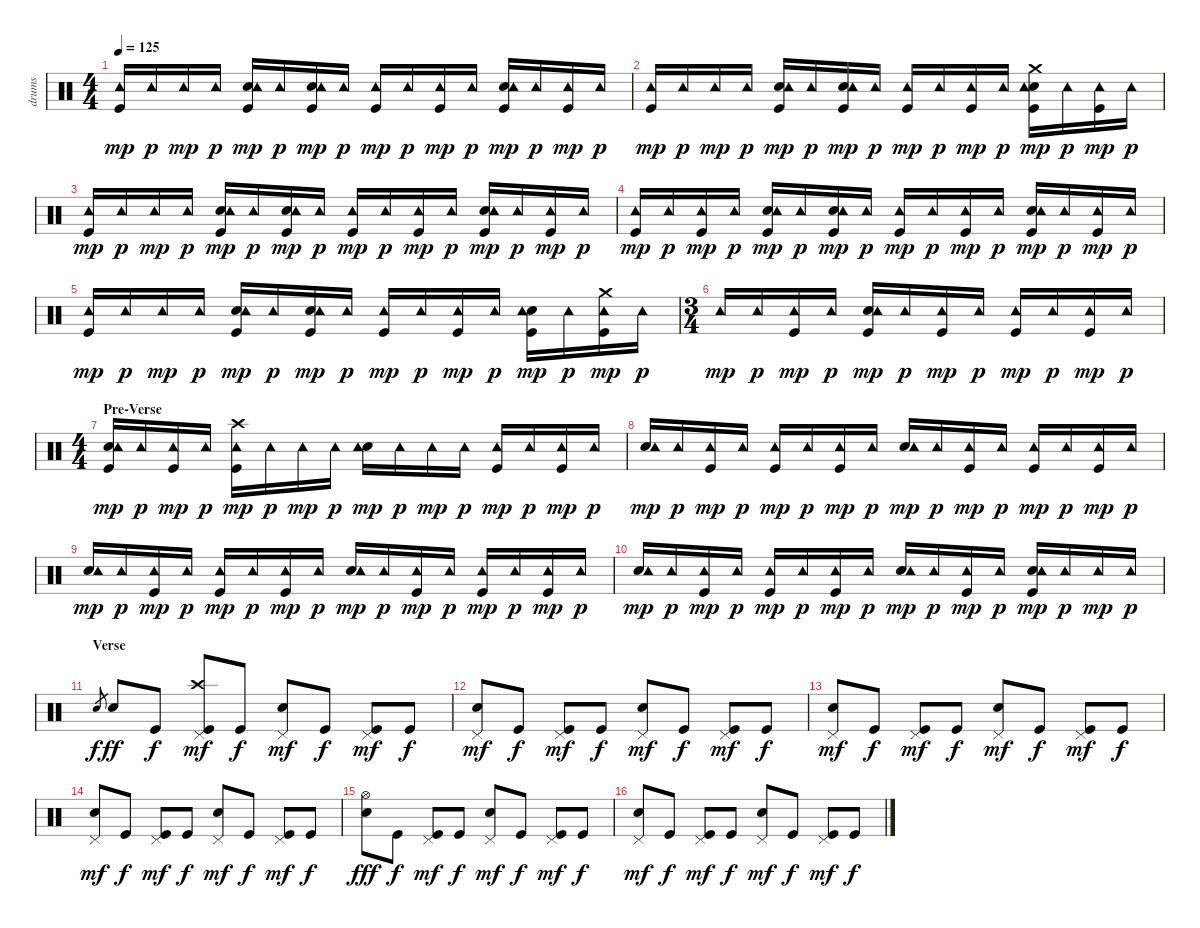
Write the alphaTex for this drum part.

\track ("drums" "drums") {instrument percussion}
\staff {score}
\articulation defaults
\ts (4 4)
\tempo 125
\clef neutral
\ks c
("Kick (hit)" "Tambourine (hit)").16{dy mp} "Tambourine (hit)".16{dy p} "Tambourine (hit)".16{dy mp} "Tambourine (hit)".16{dy p} ("Hand Clap (hit)" "Kick (hit)" "Tambourine (hit)").16{dy mp} "Tambourine (hit)".16{dy p} ("Hand Clap (hit)" "Kick (hit)" "Tambourine (hit)").16{dy mp} "Tambourine (hit)".16{dy p} ("Kick (hit)" "Tambourine (hit)").16{dy mp} "Tambourine (hit)".16{dy p} ("Kick (hit)" "Tambourine (hit)").16{dy mp} "Tambourine (hit)".16{dy p} ("Hand Clap (hit)" "Kick (hit)" "Tambourine (hit)").16{dy mp} "Tambourine (hit)".16{dy p} ("Kick (hit)" "Tambourine (hit)").16{dy mp} "Tambourine (hit)".16{dy p} |
("Kick (hit)" "Tambourine (hit)").16{dy mp} "Tambourine (hit)".16{dy p} "Tambourine (hit)".16{dy mp} "Tambourine (hit)".16{dy p} ("Hand Clap (hit)" "Kick (hit)" "Tambourine (hit)").16{dy mp} "Tambourine (hit)".16{dy p} ("Hand Clap (hit)" "Kick (hit)" "Tambourine (hit)").16{dy mp} "Tambourine (hit)".16{dy p} ("Kick (hit)" "Tambourine (hit)").16{dy mp} "Tambourine (hit)".16{dy p} ("Kick (hit)" "Tambourine (hit)").16{dy mp} "Tambourine (hit)".16{dy p} ("Hand Clap (hit)" "Kick (hit)" "Crash medium (hit)" "Tambourine (hit)").16{dy mp} "Tambourine (hit)".16{dy p} ("Kick (hit)" "Tambourine (hit)").16{dy mp} "Tambourine (hit)".16{dy p} |
("Kick (hit)" "Tambourine (hit)").16{dy mp} "Tambourine (hit)".16{dy p} "Tambourine (hit)".16{dy mp} "Tambourine (hit)".16{dy p} ("Hand Clap (hit)" "Kick (hit)" "Tambourine (hit)").16{dy mp} "Tambourine (hit)".16{dy p} ("Hand Clap (hit)" "Kick (hit)" "Tambourine (hit)").16{dy mp} "Tambourine (hit)".16{dy p} ("Kick (hit)" "Tambourine (hit)").16{dy mp} "Tambourine (hit)".16{dy p} ("Kick (hit)" "Tambourine (hit)").16{dy mp} "Tambourine (hit)".16{dy p} ("Hand Clap (hit)" "Kick (hit)" "Tambourine (hit)").16{dy mp} "Tambourine (hit)".16{dy p} ("Kick (hit)" "Tambourine (hit)").16{dy mp} "Tambourine (hit)".16{dy p} |
("Kick (hit)" "Tambourine (hit)").16{dy mp} "Tambourine (hit)".16{dy p} ("Kick (hit)" "Tambourine (hit)").16{dy mp} "Tambourine (hit)".16{dy p} ("Hand Clap (hit)" "Kick (hit)" "Tambourine (hit)").16{dy mp} "Tambourine (hit)".16{dy p} ("Hand Clap (hit)" "Kick (hit)" "Tambourine (hit)").16{dy mp} "Tambourine (hit)".16{dy p} ("Kick (hit)" "Tambourine (hit)").16{dy mp} "Tambourine (hit)".16{dy p} ("Kick (hit)" "Tambourine (hit)").16{dy mp} "Tambourine (hit)".16{dy p} ("Hand Clap (hit)" "Kick (hit)" "Tambourine (hit)").16{dy mp} "Tambourine (hit)".16{dy p} ("Kick (hit)" "Tambourine (hit)").16{dy mp} "Tambourine (hit)".16{dy p} |
("Kick (hit)" "Tambourine (hit)").16{dy mp} "Tambourine (hit)".16{dy p} "Tambourine (hit)".16{dy mp} "Tambourine (hit)".16{dy p} ("Hand Clap (hit)" "Kick (hit)" "Tambourine (hit)").16{dy mp} "Tambourine (hit)".16{dy p} ("Hand Clap (hit)" "Kick (hit)" "Tambourine (hit)").16{dy mp} "Tambourine (hit)".16{dy p} ("Kick (hit)" "Tambourine (hit)").16{dy mp} "Tambourine (hit)".16{dy p} ("Kick (hit)" "Tambourine (hit)").16{dy mp} "Tambourine (hit)".16{dy p} ("Hand Clap (hit)" "Kick (hit)" "Tambourine (hit)").16{dy mp} "Tambourine (hit)".16{dy p} ("Kick (hit)" "Crash medium (hit)" "Tambourine (hit)").16{dy mp} "Tambourine (hit)".16{dy p} |
\ts (3 4)
"Tambourine (hit)".16{dy mp} "Tambourine (hit)".16{dy p} ("Kick (hit)" "Tambourine (hit)").16{dy mp} "Tambourine (hit)".16{dy p} ("Hand Clap (hit)" "Kick (hit)" "Tambourine (hit)").16{dy mp} "Tambourine (hit)".16{dy p} ("Kick (hit)" "Tambourine (hit)").16{dy mp} "Tambourine (hit)".16{dy p} ("Kick (hit)" "Tambourine (hit)").16{dy mp} "Tambourine (hit)".16{dy p} ("Kick (hit)" "Tambourine (hit)").16{dy mp} "Tambourine (hit)".16{dy p} |
\ts (4 4)
\section ("" "Pre-Verse")
("Hand Clap (hit)" "Kick (hit)" "Tambourine (hit)").16{dy mp} "Tambourine (hit)".16{dy p} ("Kick (hit)" "Tambourine (hit)").16{dy mp} "Tambourine (hit)".16{dy p} ("Kick (hit)" "Crash high (hit)" "Tambourine (hit)").16{dy mp} "Tambourine (hit)".16{dy p} "Tambourine (hit)".16{dy mp} "Tambourine (hit)".16{dy p} ("Electric Snare (hit)" "Tambourine (hit)").16{dy mp} "Tambourine (hit)".16{dy p} "Tambourine (hit)".16{dy mp} "Tambourine (hit)".16{dy p} ("Kick (hit)" "Tambourine (hit)").16{dy mp} "Tambourine (hit)".16{dy p} ("Kick (hit)" "Tambourine (hit)").16{dy mp} "Tambourine (hit)".16{dy p} |
("Electric Snare (hit)" "Tambourine (hit)").16{dy mp} "Tambourine (hit)".16{dy p} ("Kick (hit)" "Tambourine (hit)").16{dy mp} "Tambourine (hit)".16{dy p} ("Kick (hit)" "Tambourine (hit)").16{dy mp} "Tambourine (hit)".16{dy p} ("Kick (hit)" "Tambourine (hit)").16{dy mp} "Tambourine (hit)".16{dy p} ("Electric Snare (hit)" "Tambourine (hit)").16{dy mp} "Tambourine (hit)".16{dy p} ("Kick (hit)" "Tambourine (hit)").16{dy mp} "Tambourine (hit)".16{dy p} ("Kick (hit)" "Tambourine (hit)").16{dy mp} "Tambourine (hit)".16{dy p} ("Kick (hit)" "Tambourine (hit)").16{dy mp} "Tambourine (hit)".16{dy p} |
("Electric Snare (hit)" "Tambourine (hit)").16{dy mp} "Tambourine (hit)".16{dy p} ("Kick (hit)" "Tambourine (hit)").16{dy mp} "Tambourine (hit)".16{dy p} ("Kick (hit)" "Tambourine (hit)").16{dy mp} "Tambourine (hit)".16{dy p} ("Kick (hit)" "Tambourine (hit)").16{dy mp} "Tambourine (hit)".16{dy p} ("Electric Snare (hit)" "Tambourine (hit)").16{dy mp} "Tambourine (hit)".16{dy p} ("Kick (hit)" "Tambourine (hit)").16{dy mp} "Tambourine (hit)".16{dy p} ("Kick (hit)" "Tambourine (hit)").16{dy mp} "Tambourine (hit)".16{dy p} ("Kick (hit)" "Tambourine (hit)").16{dy mp} "Tambourine (hit)".16{dy p} |
("Electric Snare (hit)" "Tambourine (hit)").16{dy mp} "Tambourine (hit)".16{dy p} ("Kick (hit)" "Tambourine (hit)").16{dy mp} "Tambourine (hit)".16{dy p} ("Kick (hit)" "Tambourine (hit)").16{dy mp} "Tambourine (hit)".16{dy p} ("Kick (hit)" "Tambourine (hit)").16{dy mp} "Tambourine (hit)".16{dy p} ("Electric Snare (hit)" "Tambourine (hit)").16{dy mp} "Tambourine (hit)".16{dy p} ("Kick (hit)" "Tambourine (hit)").16{dy mp} "Tambourine (hit)".16{dy p} ("Electric Snare (hit)" "Kick (hit)" "Tambourine (hit)").16{dy mp} "Tambourine (hit)".16{dy p} "Tambourine (hit)".16{dy mp} "Tambourine (hit)".16{dy p} |
\section ("" "Verse")
"Electric Snare (hit)".8{gr dy f} "Electric Snare (hit)".8{dy ff} "Kick (hit)".8{dy f} ("Crash high (hit)" "Kick (hit)" "Pedal Hi-Hat (hit)").8{dy mf} "Kick (hit)".8{dy f} ("Electric Snare (hit)" "Pedal Hi-Hat (hit)").8{dy mf} "Kick (hit)".8{dy f} ("Kick (hit)" "Pedal Hi-Hat (hit)").8{dy mf} "Kick (hit)".8{dy f} |
("Electric Snare (hit)" "Pedal Hi-Hat (hit)").8{dy mf} "Kick (hit)".8{dy f} ("Kick (hit)" "Pedal Hi-Hat (hit)").8{dy mf} "Kick (hit)".8{dy f} ("Electric Snare (hit)" "Pedal Hi-Hat (hit)").8{dy mf} "Kick (hit)".8{dy f} ("Kick (hit)" "Pedal Hi-Hat (hit)").8{dy mf} "Kick (hit)".8{dy f} |
("Electric Snare (hit)" "Pedal Hi-Hat (hit)").8{dy mf} "Kick (hit)".8{dy f} ("Kick (hit)" "Pedal Hi-Hat (hit)").8{dy mf} "Kick (hit)".8{dy f} ("Electric Snare (hit)" "Pedal Hi-Hat (hit)").8{dy mf} "Kick (hit)".8{dy f} ("Kick (hit)" "Pedal Hi-Hat (hit)").8{dy mf} "Kick (hit)".8{dy f} |
("Electric Snare (hit)" "Pedal Hi-Hat (hit)").8{dy mf} "Kick (hit)".8{dy f} ("Kick (hit)" "Pedal Hi-Hat (hit)").8{dy mf} "Kick (hit)".8{dy f} ("Electric Snare (hit)" "Pedal Hi-Hat (hit)").8{dy mf} "Kick (hit)".8{dy f} ("Kick (hit)" "Pedal Hi-Hat (hit)").8{dy mf} "Kick (hit)".8{dy f} |
("Electric Snare (hit)" "Hi-Hat (open)").8{dy fff} "Kick (hit)".8{dy f} ("Kick (hit)" "Pedal Hi-Hat (hit)").8{dy mf} "Kick (hit)".8{dy f} ("Electric Snare (hit)" "Pedal Hi-Hat (hit)").8{dy mf} "Kick (hit)".8{dy f} ("Kick (hit)" "Pedal Hi-Hat (hit)").8{dy mf} "Kick (hit)".8{dy f} |
("Electric Snare (hit)" "Pedal Hi-Hat (hit)").8{dy mf} "Kick (hit)".8{dy f} ("Kick (hit)" "Pedal Hi-Hat (hit)").8{dy mf} "Kick (hit)".8{dy f} ("Electric Snare (hit)" "Pedal Hi-Hat (hit)").8{dy mf} "Kick (hit)".8{dy f} ("Kick (hit)" "Pedal Hi-Hat (hit)").8{dy mf} "Kick (hit)".8{dy f}
